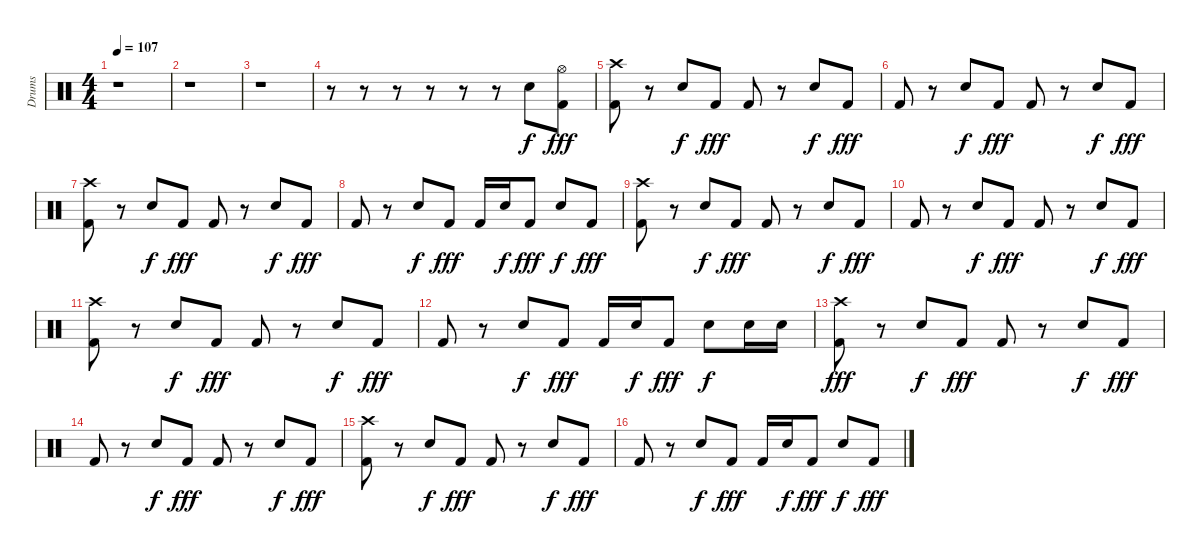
\track ("Drums" "Drums") {instrument percussion}
\staff {score}
\articulation defaults
\ts (4 4)
\tempo 107
\clef neutral
\ks c
r.1{dy f} |
r.1 |
r.1 |
r.8 r.8 r.8 r.8 r.8 r.8 "Snare (hit) 2".8 ("Hi-Hat (open)" "Kick (hit) 2").8{dy fff} |
("Crash high (hit)" "Kick (hit) 2").8 r.8 "Snare (hit) 2".8{dy f} "Kick (hit) 2".8{dy fff} "Kick (hit) 2".8 r.8 "Snare (hit) 2".8{dy f} "Kick (hit) 2".8{dy fff} |
"Kick (hit) 2".8 r.8 "Snare (hit) 2".8{dy f} "Kick (hit) 2".8{dy fff} "Kick (hit) 2".8 r.8 "Snare (hit) 2".8{dy f} "Kick (hit) 2".8{dy fff} |
("Crash high (hit)" "Kick (hit) 2").8 r.8 "Snare (hit) 2".8{dy f} "Kick (hit) 2".8{dy fff} "Kick (hit) 2".8 r.8 "Snare (hit) 2".8{dy f} "Kick (hit) 2".8{dy fff} |
"Kick (hit) 2".8 r.8 "Snare (hit) 2".8{dy f} "Kick (hit) 2".8{dy fff} "Kick (hit) 2".16 "Snare (hit) 2".16{dy f} "Kick (hit) 2".8{dy fff} "Snare (hit) 2".8{dy f} "Kick (hit) 2".8{dy fff} |
("Crash high (hit)" "Kick (hit) 2").8 r.8 "Snare (hit) 2".8{dy f} "Kick (hit) 2".8{dy fff} "Kick (hit) 2".8 r.8 "Snare (hit) 2".8{dy f} "Kick (hit) 2".8{dy fff} |
"Kick (hit) 2".8 r.8 "Snare (hit) 2".8{dy f} "Kick (hit) 2".8{dy fff} "Kick (hit) 2".8 r.8 "Snare (hit) 2".8{dy f} "Kick (hit) 2".8{dy fff} |
("Crash high (hit)" "Kick (hit) 2").8 r.8 "Snare (hit) 2".8{dy f} "Kick (hit) 2".8{dy fff} "Kick (hit) 2".8 r.8 "Snare (hit) 2".8{dy f} "Kick (hit) 2".8{dy fff} |
"Kick (hit) 2".8 r.8 "Snare (hit) 2".8{dy f} "Kick (hit) 2".8{dy fff} "Kick (hit) 2".16 "Snare (hit) 2".16{dy f} "Kick (hit) 2".8{dy fff} "Snare (hit) 2".8{dy f} "Snare (hit) 2".16 "Snare (hit) 2".16 |
("Crash high (hit)" "Kick (hit) 2").8{dy fff} r.8 "Snare (hit) 2".8{dy f} "Kick (hit) 2".8{dy fff} "Kick (hit) 2".8 r.8 "Snare (hit) 2".8{dy f} "Kick (hit) 2".8{dy fff} |
"Kick (hit) 2".8 r.8 "Snare (hit) 2".8{dy f} "Kick (hit) 2".8{dy fff} "Kick (hit) 2".8 r.8 "Snare (hit) 2".8{dy f} "Kick (hit) 2".8{dy fff} |
("Crash high (hit)" "Kick (hit) 2").8 r.8 "Snare (hit) 2".8{dy f} "Kick (hit) 2".8{dy fff} "Kick (hit) 2".8 r.8 "Snare (hit) 2".8{dy f} "Kick (hit) 2".8{dy fff} |
"Kick (hit) 2".8 r.8 "Snare (hit) 2".8{dy f} "Kick (hit) 2".8{dy fff} "Kick (hit) 2".16 "Snare (hit) 2".16{dy f} "Kick (hit) 2".8{dy fff} "Snare (hit) 2".8{dy f} "Kick (hit) 2".8{dy fff}
